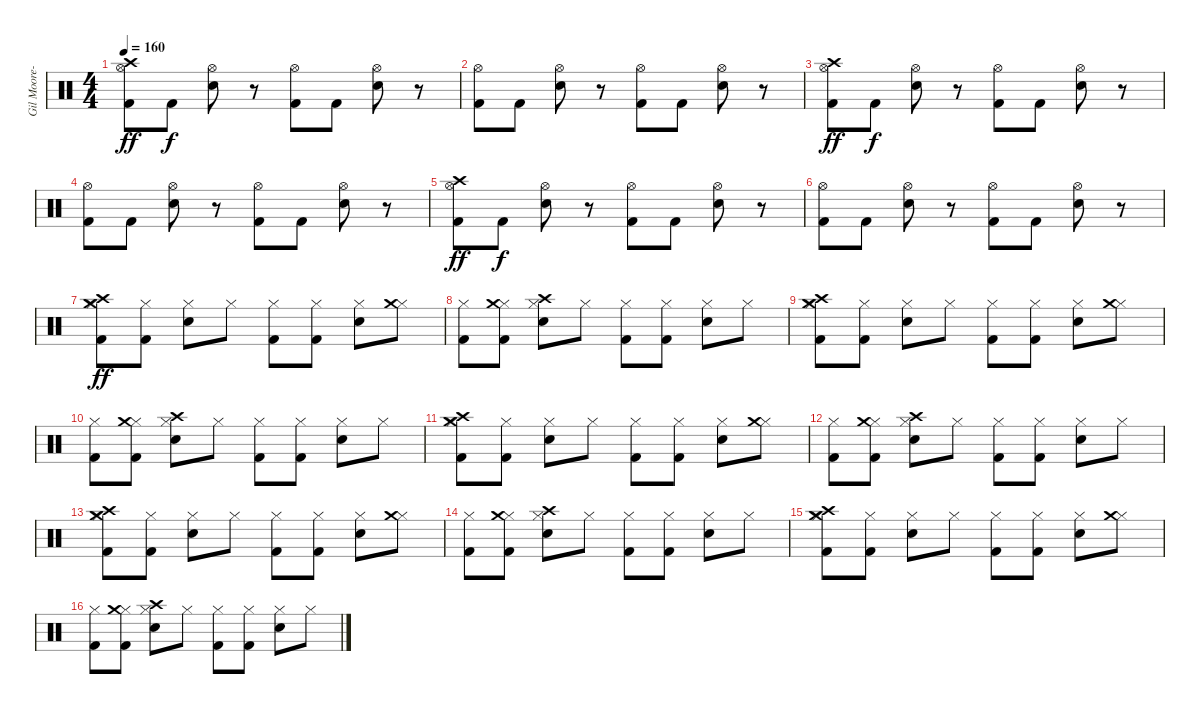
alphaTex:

\track ("Gil Moore-Drums n Vocals" "Gil Moore-") {instrument percussion}
\staff {score}
\articulation defaults
\ts (4 4)
\tempo 160
\clef neutral
\ks c
("Kick (hit) 2" "Hi-Hat (open)" "Crash high (hit)").8{dy ff} "Kick (hit) 2".8{dy f} ("Electric Snare (hit)" "Hi-Hat (open)").8 r.8 ("Kick (hit) 2" "Hi-Hat (open)").8 "Kick (hit) 2".8 ("Electric Snare (hit)" "Hi-Hat (open)").8 r.8 |
("Kick (hit) 2" "Hi-Hat (open)").8 "Kick (hit) 2".8 ("Electric Snare (hit)" "Hi-Hat (open)").8 r.8 ("Kick (hit) 2" "Hi-Hat (open)").8 "Kick (hit) 2".8 ("Electric Snare (hit)" "Hi-Hat (open)").8 r.8 |
("Kick (hit) 2" "Hi-Hat (open)" "Crash high (hit)").8{dy ff} "Kick (hit) 2".8{dy f} ("Electric Snare (hit)" "Hi-Hat (open)").8 r.8 ("Kick (hit) 2" "Hi-Hat (open)").8 "Kick (hit) 2".8 ("Electric Snare (hit)" "Hi-Hat (open)").8 r.8 |
("Kick (hit) 2" "Hi-Hat (open)").8 "Kick (hit) 2".8 ("Electric Snare (hit)" "Hi-Hat (open)").8 r.8 ("Kick (hit) 2" "Hi-Hat (open)").8 "Kick (hit) 2".8 ("Electric Snare (hit)" "Hi-Hat (open)").8 r.8 |
("Kick (hit) 2" "Hi-Hat (open)" "Crash high (hit)").8{dy ff} "Kick (hit) 2".8{dy f} ("Electric Snare (hit)" "Hi-Hat (open)").8 r.8 ("Kick (hit) 2" "Hi-Hat (open)").8 "Kick (hit) 2".8 ("Electric Snare (hit)" "Hi-Hat (open)").8 r.8 |
("Kick (hit) 2" "Hi-Hat (open)").8 "Kick (hit) 2".8 ("Electric Snare (hit)" "Hi-Hat (open)").8 r.8 ("Kick (hit) 2" "Hi-Hat (open)").8 "Kick (hit) 2".8 ("Electric Snare (hit)" "Hi-Hat (open)").8 r.8 |
("Kick (hit) 2" "Hi-Hat (closed)" "Crash high (hit)" "Crash medium (hit)").8{dy ff} ("Kick (hit) 2" "Hi-Hat (closed)").8 ("Electric Snare (hit)" "Hi-Hat (closed)").8 "Hi-Hat (closed)".8 ("Kick (hit) 2" "Hi-Hat (closed)").8 ("Kick (hit) 2" "Hi-Hat (closed)").8 ("Electric Snare (hit)" "Hi-Hat (closed)").8 ("Hi-Hat (closed)" "Crash medium (hit)").8 |
("Kick (hit) 2" "Hi-Hat (closed)").8 ("Kick (hit) 2" "Hi-Hat (closed)" "Crash medium (hit)").8 ("Electric Snare (hit)" "Hi-Hat (closed)" "Crash high (hit)").8 "Hi-Hat (closed)".8 ("Kick (hit) 2" "Hi-Hat (closed)").8 ("Kick (hit) 2" "Hi-Hat (closed)").8 ("Electric Snare (hit)" "Hi-Hat (closed)").8 "Hi-Hat (closed)".8 |
("Kick (hit) 2" "Hi-Hat (closed)" "Crash high (hit)" "Crash medium (hit)").8 ("Kick (hit) 2" "Hi-Hat (closed)").8 ("Electric Snare (hit)" "Hi-Hat (closed)").8 "Hi-Hat (closed)".8 ("Kick (hit) 2" "Hi-Hat (closed)").8 ("Kick (hit) 2" "Hi-Hat (closed)").8 ("Electric Snare (hit)" "Hi-Hat (closed)").8 ("Hi-Hat (closed)" "Crash medium (hit)").8 |
("Kick (hit) 2" "Hi-Hat (closed)").8 ("Kick (hit) 2" "Hi-Hat (closed)" "Crash medium (hit)").8 ("Electric Snare (hit)" "Hi-Hat (closed)" "Crash high (hit)").8 "Hi-Hat (closed)".8 ("Kick (hit) 2" "Hi-Hat (closed)").8 ("Kick (hit) 2" "Hi-Hat (closed)").8 ("Electric Snare (hit)" "Hi-Hat (closed)").8 "Hi-Hat (closed)".8 |
("Kick (hit) 2" "Hi-Hat (closed)" "Crash high (hit)" "Crash medium (hit)").8 ("Kick (hit) 2" "Hi-Hat (closed)").8 ("Electric Snare (hit)" "Hi-Hat (closed)").8 "Hi-Hat (closed)".8 ("Kick (hit) 2" "Hi-Hat (closed)").8 ("Kick (hit) 2" "Hi-Hat (closed)").8 ("Electric Snare (hit)" "Hi-Hat (closed)").8 ("Hi-Hat (closed)" "Crash medium (hit)").8 |
("Kick (hit) 2" "Hi-Hat (closed)").8 ("Kick (hit) 2" "Hi-Hat (closed)" "Crash medium (hit)").8 ("Electric Snare (hit)" "Hi-Hat (closed)" "Crash high (hit)").8 "Hi-Hat (closed)".8 ("Kick (hit) 2" "Hi-Hat (closed)").8 ("Kick (hit) 2" "Hi-Hat (closed)").8 ("Electric Snare (hit)" "Hi-Hat (closed)").8 "Hi-Hat (closed)".8 |
("Kick (hit) 2" "Hi-Hat (closed)" "Crash high (hit)" "Crash medium (hit)").8 ("Kick (hit) 2" "Hi-Hat (closed)").8 ("Electric Snare (hit)" "Hi-Hat (closed)").8 "Hi-Hat (closed)".8 ("Kick (hit) 2" "Hi-Hat (closed)").8 ("Kick (hit) 2" "Hi-Hat (closed)").8 ("Electric Snare (hit)" "Hi-Hat (closed)").8 ("Hi-Hat (closed)" "Crash medium (hit)").8 |
("Kick (hit) 2" "Hi-Hat (closed)").8 ("Kick (hit) 2" "Hi-Hat (closed)" "Crash medium (hit)").8 ("Electric Snare (hit)" "Hi-Hat (closed)" "Crash high (hit)").8 "Hi-Hat (closed)".8 ("Kick (hit) 2" "Hi-Hat (closed)").8 ("Kick (hit) 2" "Hi-Hat (closed)").8 ("Electric Snare (hit)" "Hi-Hat (closed)").8 "Hi-Hat (closed)".8 |
("Kick (hit) 2" "Hi-Hat (closed)" "Crash high (hit)" "Crash medium (hit)").8 ("Kick (hit) 2" "Hi-Hat (closed)").8 ("Electric Snare (hit)" "Hi-Hat (closed)").8 "Hi-Hat (closed)".8 ("Kick (hit) 2" "Hi-Hat (closed)").8 ("Kick (hit) 2" "Hi-Hat (closed)").8 ("Electric Snare (hit)" "Hi-Hat (closed)").8 ("Hi-Hat (closed)" "Crash medium (hit)").8 |
("Kick (hit) 2" "Hi-Hat (closed)").8 ("Kick (hit) 2" "Hi-Hat (closed)" "Crash medium (hit)").8 ("Electric Snare (hit)" "Hi-Hat (closed)" "Crash high (hit)").8 "Hi-Hat (closed)".8 ("Kick (hit) 2" "Hi-Hat (closed)").8 ("Kick (hit) 2" "Hi-Hat (closed)").8 ("Electric Snare (hit)" "Hi-Hat (closed)").8 "Hi-Hat (closed)".8
